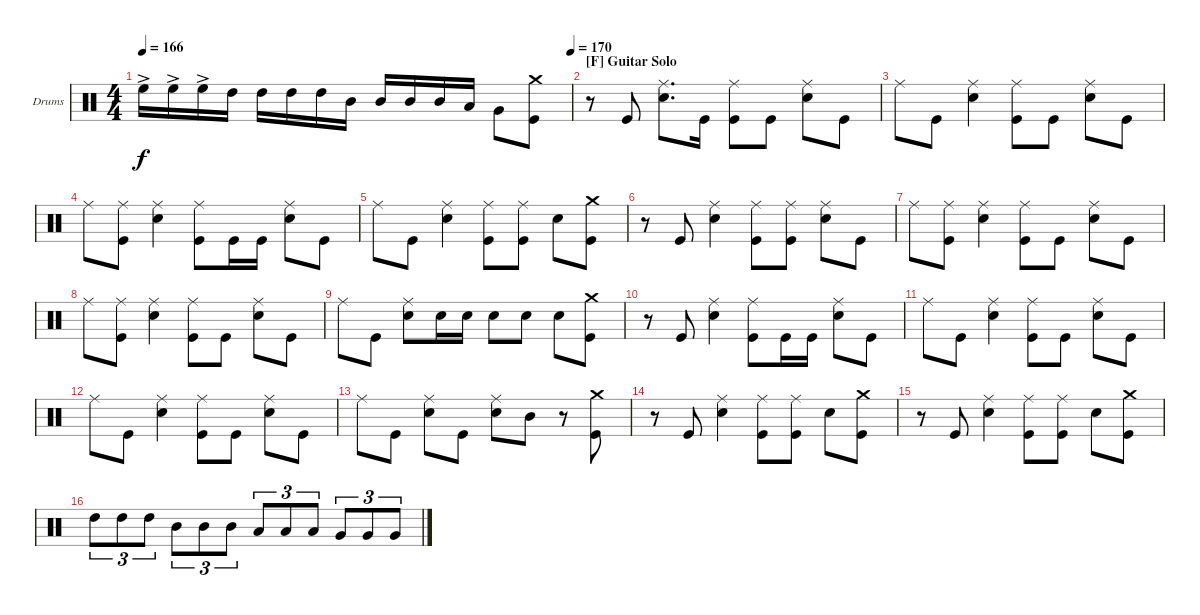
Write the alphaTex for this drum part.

\bracketExtendMode groupsimilarinstruments
\firstSystemTrackNameOrientation horizontal
\otherSystemsTrackNameOrientation horizontal
\track ("Vinny Appice" "Drums") {instrument percussion}
\staff {score}
\articulation defaults
\ts (4 4)
\tempo 166
\tempo (170 1)
\clef neutral
\ks c "High Floor Tom (hit)"{ac}.16{dy f} "High Floor Tom (hit)"{ac}.16 "High Floor Tom (hit)"{ac}.16 "High Tom (hit)".16 "High Tom (hit)".16 "High Tom (hit)".16 "High Tom (hit)".16 "Mid Tom (hit)".16 "Mid Tom (hit)".16 "Mid Tom (hit)".16 "Mid Tom (hit)".16 "Low Tom (hit)".16 "Very Low Tom (hit)".8
("Crash medium (hit)" "Kick (hit)").8 |
\section ("F" "Guitar Solo")
r.8 "Kick (hit)".8 ("Ride (middle)" "Snare (hit) 2").8{d} "Kick (hit)".16 ("Ride (middle)" "Kick (hit)").8 "Kick (hit)".8 ("Ride (middle)" "Snare (hit) 2").8 "Kick (hit)".8 |
"Ride (middle)".8 "Kick (hit)".8 ("Ride (middle)" "Snare (hit) 2").4 ("Ride (middle)" "Kick (hit)").8 "Kick (hit)".8 ("Ride (middle)" "Snare (hit) 2").8 "Kick (hit)".8 |
"Ride (middle)".8 ("Ride (middle)" "Kick (hit)").8 ("Ride (middle)" "Snare (hit) 2").4 ("Ride (middle)" "Kick (hit)").8 "Kick (hit)".16 "Kick (hit)".16 ("Ride (middle)" "Snare (hit) 2").8 "Kick (hit)".8 |
"Ride (middle)".8 "Kick (hit)".8 ("Ride (middle)" "Snare (hit) 2").4 ("Ride (middle)" "Kick (hit)").8 ("Ride (middle)" "Kick (hit)").8 "Snare (hit) 2".8 ("Crash medium (hit)" "Kick (hit)").8 |
r.8 "Kick (hit)".8 ("Ride (middle)" "Snare (hit) 2").4 ("Ride (middle)" "Kick (hit)").8 ("Ride (middle)" "Kick (hit)").8 ("Ride (middle)" "Snare (hit) 2").8 "Kick (hit)".8 |
"Ride (middle)".8 ("Ride (middle)" "Kick (hit)").8 ("Ride (middle)" "Snare (hit) 2").4 ("Ride (middle)" "Kick (hit)").8 "Kick (hit)".8 ("Ride (middle)" "Snare (hit) 2").8 "Kick (hit)".8 |
"Ride (middle)".8 ("Ride (middle)" "Kick (hit)").8 ("Ride (middle)" "Snare (hit) 2").4 ("Ride (middle)" "Kick (hit)").8 "Kick (hit)".8 ("Ride (middle)" "Snare (hit) 2").8 "Kick (hit)".8 |
"Ride (middle)".8 "Kick (hit)".8 ("Ride (middle)" "Snare (hit) 2").8 "Snare (hit) 2".16 "Snare (hit) 2".16 "Snare (hit) 2".8 "Snare (hit) 2".8 "Snare (hit) 2".8 ("Crash medium (hit)" "Kick (hit)").8 |
r.8 "Kick (hit)".8 ("Ride (middle)" "Snare (hit) 2").4 ("Ride (middle)" "Kick (hit)").8 "Kick (hit)".16 "Kick (hit)".16 ("Ride (middle)" "Snare (hit) 2").8 "Kick (hit)".8 |
"Ride (middle)".8 "Kick (hit)".8 ("Ride (middle)" "Snare (hit) 2").4 ("Ride (middle)" "Kick (hit)").8 "Kick (hit)".8 ("Ride (middle)" "Snare (hit) 2").8 "Kick (hit)".8 |
"Ride (middle)".8 "Kick (hit)".8 ("Ride (middle)" "Snare (hit) 2").4 ("Ride (middle)" "Kick (hit)").8 "Kick (hit)".8 ("Ride (middle)" "Snare (hit) 2").8 "Kick (hit)".8 |
"Ride (middle)".8 "Kick (hit)".8 ("Ride (middle)" "Snare (hit) 2").8 "Kick (hit)".8 ("Ride (middle)" "Snare (hit) 2").8 "Mid Tom (hit)".8 r.8 ("Crash medium (hit)" "Kick (hit)").8 |
r.8 "Kick (hit)".8 ("Ride (middle)" "Snare (hit) 2").4 ("Ride (middle)" "Kick (hit)").8 ("Ride (middle)" "Kick (hit)").8 "Snare (hit) 2".8 ("Crash medium (hit)" "Kick (hit)").8 |
r.8 "Kick (hit)".8 ("Ride (middle)" "Snare (hit) 2").4 ("Ride (middle)" "Kick (hit)").8 ("Ride (middle)" "Kick (hit)").8 "Snare (hit) 2".8 ("Crash medium (hit)" "Kick (hit)").8 |
"High Tom (hit)".8{tu (3 2)} "High Tom (hit)".8{tu (3 2)} "High Tom (hit)".8{tu (3 2)} "Mid Tom (hit)".8{tu (3 2)} "Mid Tom (hit)".8{tu (3 2)} "Mid Tom (hit)".8{tu (3 2)} "Low Tom (hit)".8{tu (3 2)} "Low Tom (hit)".8{tu (3 2)} "Low Tom (hit)".8{tu (3 2)} "Very Low Tom (hit)".8{tu (3 2)} "Very Low Tom (hit)".8{tu (3 2)} "Very Low Tom (hit)".8{tu (3 2)}
